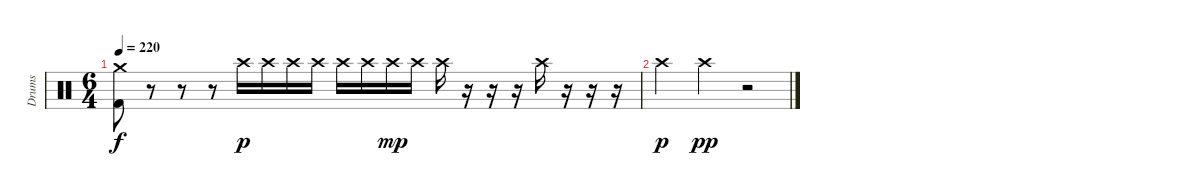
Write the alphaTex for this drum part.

\track ("Drums" "Drums") {instrument percussion}
\staff {score}
\articulation defaults
\ts (6 4)
\tempo 220
\clef neutral
\ks c
("Crash medium (hit)" "Kick (hit) 2").8{dy f} r.8 r.8 r.8 "Crash high (hit)".16{dy p} "Crash high (hit)".16 "Crash high (hit)".16 "Crash high (hit)".16 "Crash high (hit)".16 "Crash high (hit)".16 "Crash high (hit)".16{dy mp} "Crash high (hit)".16 "Crash high (hit)".16 r.16 r.16 r.16 "Crash high (hit)".16 r.16 r.16 r.16 |
"Crash high (hit)".2{dy p} "Crash high (hit)".2{dy pp} r.2
